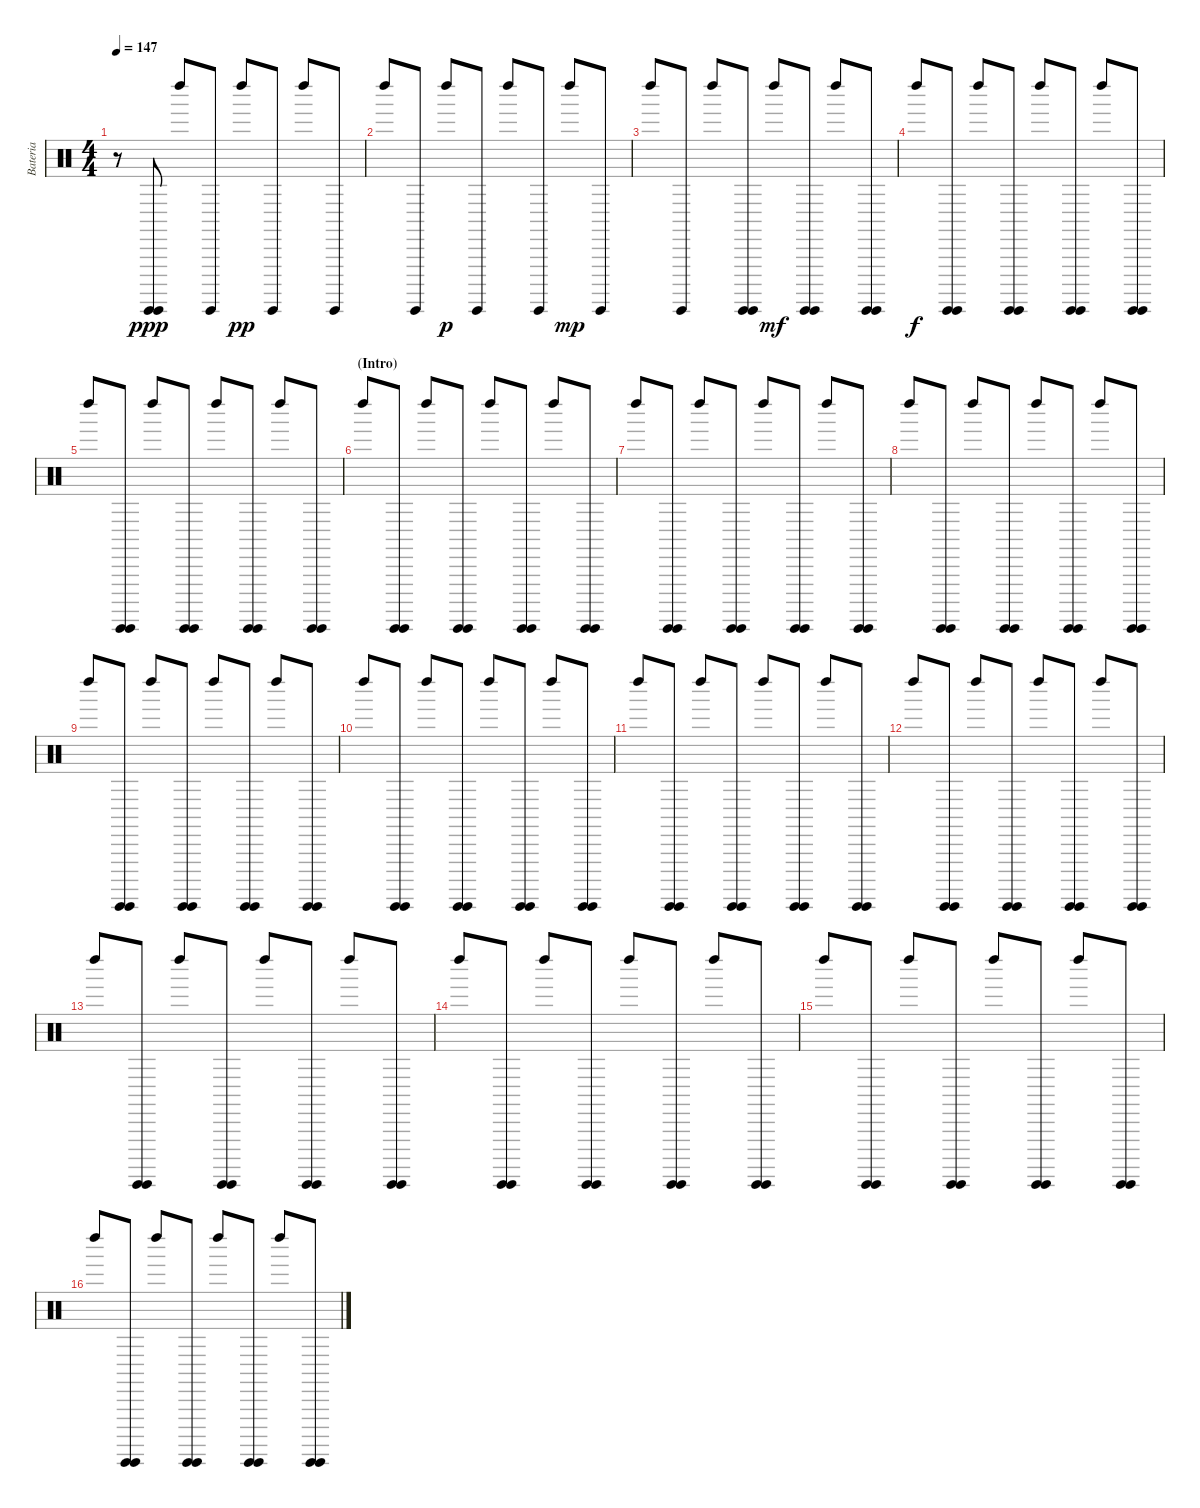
\track ("Bateria" "Bateria") {instrument percussion}
\staff {score}
\articulation defaults
\ts (4 4)
\tempo 147
\clef neutral
\ks c
r.8{dy ppp} ("Guiro (hit)" "Guiro (hit)").8 "Left Maraca (hit)".8 "Guiro (hit)".8 "Left Maraca (hit)".8{dy pp} "Guiro (hit)".8 "Left Maraca (hit)".8 "Guiro (hit)".8 |
"Left Maraca (hit)".8 "Guiro (hit)".8 "Left Maraca (hit)".8{dy p} "Guiro (hit)".8 "Left Maraca (hit)".8 "Guiro (hit)".8 "Left Maraca (hit)".8{dy mp} "Guiro (hit)".8 |
"Left Maraca (hit)".8 "Guiro (hit)".8 "Left Maraca (hit)".8 ("Guiro (hit)" "Guiro (hit)").8 "Left Maraca (hit)".8{dy mf} ("Guiro (hit)" "Guiro (hit)").8 "Left Maraca (hit)".8 ("Guiro (hit)" "Guiro (hit)").8 |
"Left Maraca (hit)".8{dy f} ("Guiro (hit)" "Guiro (hit)").8 "Left Maraca (hit)".8 ("Guiro (hit)" "Guiro (hit)").8 "Left Maraca (hit)".8 ("Guiro (hit)" "Guiro (hit)").8 "Left Maraca (hit)".8 ("Guiro (hit)" "Guiro (hit)").8 |
"Left Maraca (hit)".8 ("Guiro (hit)" "Guiro (hit)").8 "Left Maraca (hit)".8 ("Guiro (hit)" "Guiro (hit)").8 "Left Maraca (hit)".8 ("Guiro (hit)" "Guiro (hit)").8 "Left Maraca (hit)".8 ("Guiro (hit)" "Guiro (hit)").8 |
\section ("" "(Intro)")
"Left Maraca (hit)".8 ("Guiro (hit)" "Guiro (hit)").8 "Left Maraca (hit)".8 ("Guiro (hit)" "Guiro (hit)").8 "Left Maraca (hit)".8 ("Guiro (hit)" "Guiro (hit)").8 "Left Maraca (hit)".8 ("Guiro (hit)" "Guiro (hit)").8 |
"Left Maraca (hit)".8 ("Guiro (hit)" "Guiro (hit)").8 "Left Maraca (hit)".8 ("Guiro (hit)" "Guiro (hit)").8 "Left Maraca (hit)".8 ("Guiro (hit)" "Guiro (hit)").8 "Left Maraca (hit)".8 ("Guiro (hit)" "Guiro (hit)").8 |
"Left Maraca (hit)".8 ("Guiro (hit)" "Guiro (hit)").8 "Left Maraca (hit)".8 ("Guiro (hit)" "Guiro (hit)").8 "Left Maraca (hit)".8 ("Guiro (hit)" "Guiro (hit)").8 "Left Maraca (hit)".8 ("Guiro (hit)" "Guiro (hit)").8 |
"Left Maraca (hit)".8 ("Guiro (hit)" "Guiro (hit)").8 "Left Maraca (hit)".8 ("Guiro (hit)" "Guiro (hit)").8 "Left Maraca (hit)".8 ("Guiro (hit)" "Guiro (hit)").8 "Left Maraca (hit)".8 ("Guiro (hit)" "Guiro (hit)").8 |
"Left Maraca (hit)".8 ("Guiro (hit)" "Guiro (hit)").8 "Left Maraca (hit)".8 ("Guiro (hit)" "Guiro (hit)").8 "Left Maraca (hit)".8 ("Guiro (hit)" "Guiro (hit)").8 "Left Maraca (hit)".8 ("Guiro (hit)" "Guiro (hit)").8 |
"Left Maraca (hit)".8 ("Guiro (hit)" "Guiro (hit)").8 "Left Maraca (hit)".8 ("Guiro (hit)" "Guiro (hit)").8 "Left Maraca (hit)".8 ("Guiro (hit)" "Guiro (hit)").8 "Left Maraca (hit)".8 ("Guiro (hit)" "Guiro (hit)").8 |
"Left Maraca (hit)".8 ("Guiro (hit)" "Guiro (hit)").8 "Left Maraca (hit)".8 ("Guiro (hit)" "Guiro (hit)").8 "Left Maraca (hit)".8 ("Guiro (hit)" "Guiro (hit)").8 "Left Maraca (hit)".8 ("Guiro (hit)" "Guiro (hit)").8 |
"Left Maraca (hit)".8 ("Guiro (hit)" "Guiro (hit)").8 "Left Maraca (hit)".8 ("Guiro (hit)" "Guiro (hit)").8 "Left Maraca (hit)".8 ("Guiro (hit)" "Guiro (hit)").8 "Left Maraca (hit)".8 ("Guiro (hit)" "Guiro (hit)").8 |
"Left Maraca (hit)".8 ("Guiro (hit)" "Guiro (hit)").8 "Left Maraca (hit)".8 ("Guiro (hit)" "Guiro (hit)").8 "Left Maraca (hit)".8 ("Guiro (hit)" "Guiro (hit)").8 "Left Maraca (hit)".8 ("Guiro (hit)" "Guiro (hit)").8 |
"Left Maraca (hit)".8 ("Guiro (hit)" "Guiro (hit)").8 "Left Maraca (hit)".8 ("Guiro (hit)" "Guiro (hit)").8 "Left Maraca (hit)".8 ("Guiro (hit)" "Guiro (hit)").8 "Left Maraca (hit)".8 ("Guiro (hit)" "Guiro (hit)").8 |
"Left Maraca (hit)".8 ("Guiro (hit)" "Guiro (hit)").8 "Left Maraca (hit)".8 ("Guiro (hit)" "Guiro (hit)").8 "Left Maraca (hit)".8 ("Guiro (hit)" "Guiro (hit)").8 "Left Maraca (hit)".8 ("Guiro (hit)" "Guiro (hit)").8
